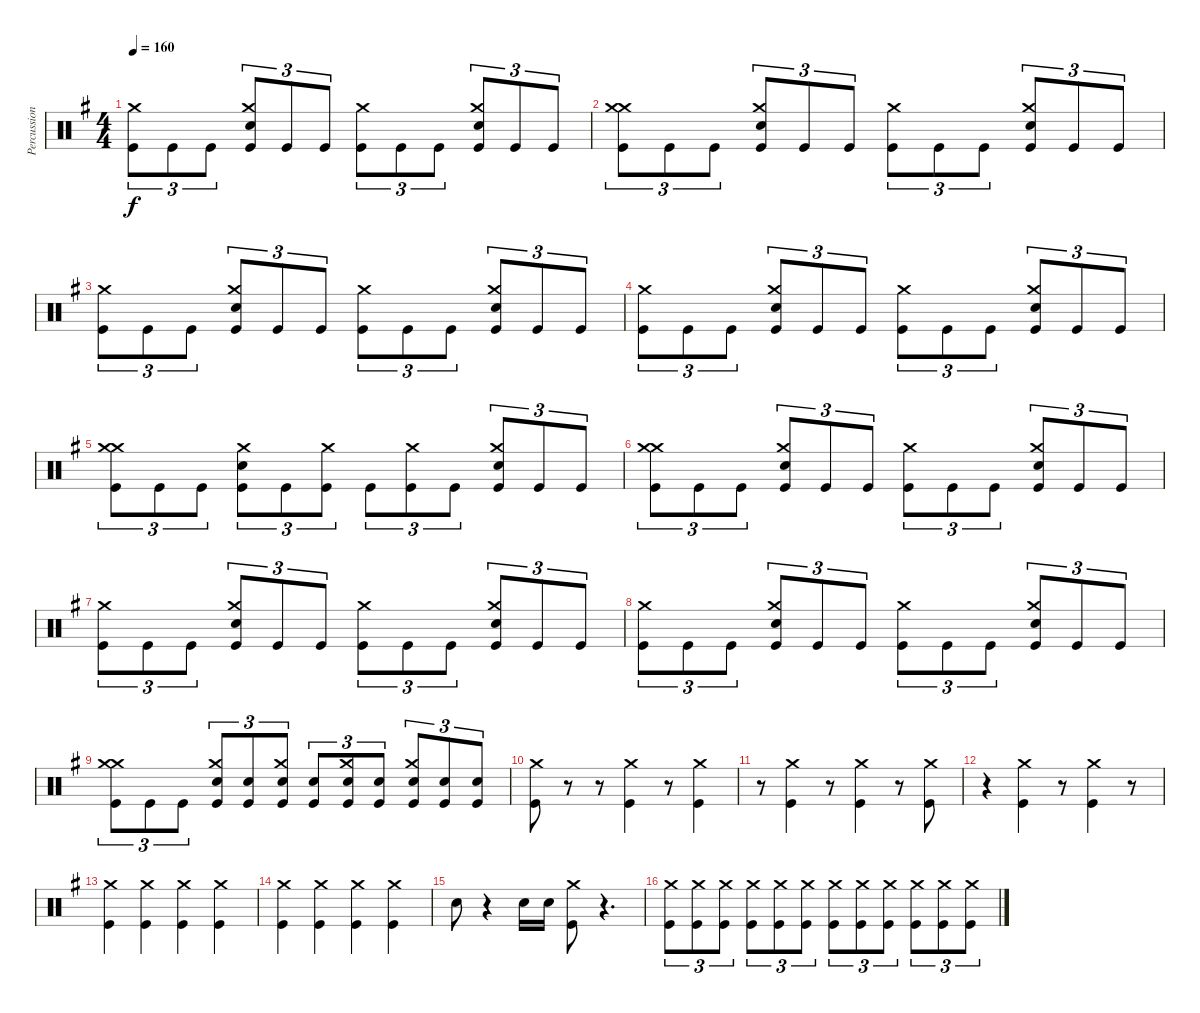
\track ("Percussions" "Percussion") {instrument percussion}
\staff {score}
\articulation defaults
\ts (4 4)
\tempo 160
\clef neutral
\ks g
("Kick (hit)" "Crash medium (hit)").8{tu (3 2) dy f} "Kick (hit)".8{tu (3 2)} "Kick (hit)".8{tu (3 2)} ("Kick (hit)" "Electric Snare (hit)" "Crash medium (hit)").8{tu (3 2)} "Kick (hit)".8{tu (3 2)} "Kick (hit)".8{tu (3 2)} ("Kick (hit)" "Crash medium (hit)").8{tu (3 2)} "Kick (hit)".8{tu (3 2)} "Kick (hit)".8{tu (3 2)} ("Kick (hit)" "Electric Snare (hit)" "Crash medium (hit)").8{tu (3 2)} "Kick (hit)".8{tu (3 2)} "Kick (hit)".8{tu (3 2)} |
("Kick (hit)" "Crash medium (hit)" "Crash medium (hit)").8{tu (3 2)} "Kick (hit)".8{tu (3 2)} "Kick (hit)".8{tu (3 2)} ("Kick (hit)" "Electric Snare (hit)" "Crash medium (hit)").8{tu (3 2)} "Kick (hit)".8{tu (3 2)} "Kick (hit)".8{tu (3 2)} ("Kick (hit)" "Crash medium (hit)").8{tu (3 2)} "Kick (hit)".8{tu (3 2)} "Kick (hit)".8{tu (3 2)} ("Kick (hit)" "Electric Snare (hit)" "Crash medium (hit)").8{tu (3 2)} "Kick (hit)".8{tu (3 2)} "Kick (hit)".8{tu (3 2)} |
("Kick (hit)" "Crash medium (hit)").8{tu (3 2)} "Kick (hit)".8{tu (3 2)} "Kick (hit)".8{tu (3 2)} ("Kick (hit)" "Electric Snare (hit)" "Crash medium (hit)").8{tu (3 2)} "Kick (hit)".8{tu (3 2)} "Kick (hit)".8{tu (3 2)} ("Kick (hit)" "Crash medium (hit)").8{tu (3 2)} "Kick (hit)".8{tu (3 2)} "Kick (hit)".8{tu (3 2)} ("Kick (hit)" "Electric Snare (hit)" "Crash medium (hit)").8{tu (3 2)} "Kick (hit)".8{tu (3 2)} "Kick (hit)".8{tu (3 2)} |
("Kick (hit)" "Crash medium (hit)").8{tu (3 2)} "Kick (hit)".8{tu (3 2)} "Kick (hit)".8{tu (3 2)} ("Kick (hit)" "Electric Snare (hit)" "Crash medium (hit)").8{tu (3 2)} "Kick (hit)".8{tu (3 2)} "Kick (hit)".8{tu (3 2)} ("Kick (hit)" "Crash medium (hit)").8{tu (3 2)} "Kick (hit)".8{tu (3 2)} "Kick (hit)".8{tu (3 2)} ("Kick (hit)" "Electric Snare (hit)" "Crash medium (hit)").8{tu (3 2)} "Kick (hit)".8{tu (3 2)} "Kick (hit)".8{tu (3 2)} |
("Kick (hit)" "Crash medium (hit)" "Crash medium (hit)").8{tu (3 2)} "Kick (hit)".8{tu (3 2)} "Kick (hit)".8{tu (3 2)} ("Kick (hit)" "Electric Snare (hit)" "Crash medium (hit)").8{tu (3 2)} "Kick (hit)".8{tu (3 2)} ("Kick (hit)" "Crash medium (hit)").8{tu (3 2)} "Kick (hit)".8{tu (3 2)} ("Kick (hit)" "Crash medium (hit)").8{tu (3 2)} "Kick (hit)".8{tu (3 2)} ("Kick (hit)" "Electric Snare (hit)" "Crash medium (hit)").8{tu (3 2)} "Kick (hit)".8{tu (3 2)} "Kick (hit)".8{tu (3 2)} |
("Kick (hit)" "Crash medium (hit)" "Crash medium (hit)").8{tu (3 2)} "Kick (hit)".8{tu (3 2)} "Kick (hit)".8{tu (3 2)} ("Kick (hit)" "Electric Snare (hit)" "Crash medium (hit)").8{tu (3 2)} "Kick (hit)".8{tu (3 2)} "Kick (hit)".8{tu (3 2)} ("Kick (hit)" "Crash medium (hit)").8{tu (3 2)} "Kick (hit)".8{tu (3 2)} "Kick (hit)".8{tu (3 2)} ("Kick (hit)" "Electric Snare (hit)" "Crash medium (hit)").8{tu (3 2)} "Kick (hit)".8{tu (3 2)} "Kick (hit)".8{tu (3 2)} |
("Kick (hit)" "Crash medium (hit)").8{tu (3 2)} "Kick (hit)".8{tu (3 2)} "Kick (hit)".8{tu (3 2)} ("Kick (hit)" "Electric Snare (hit)" "Crash medium (hit)").8{tu (3 2)} "Kick (hit)".8{tu (3 2)} "Kick (hit)".8{tu (3 2)} ("Kick (hit)" "Crash medium (hit)").8{tu (3 2)} "Kick (hit)".8{tu (3 2)} "Kick (hit)".8{tu (3 2)} ("Kick (hit)" "Electric Snare (hit)" "Crash medium (hit)").8{tu (3 2)} "Kick (hit)".8{tu (3 2)} "Kick (hit)".8{tu (3 2)} |
("Kick (hit)" "Crash medium (hit)").8{tu (3 2)} "Kick (hit)".8{tu (3 2)} "Kick (hit)".8{tu (3 2)} ("Kick (hit)" "Electric Snare (hit)" "Crash medium (hit)").8{tu (3 2)} "Kick (hit)".8{tu (3 2)} "Kick (hit)".8{tu (3 2)} ("Kick (hit)" "Crash medium (hit)").8{tu (3 2)} "Kick (hit)".8{tu (3 2)} "Kick (hit)".8{tu (3 2)} ("Kick (hit)" "Electric Snare (hit)" "Crash medium (hit)").8{tu (3 2)} "Kick (hit)".8{tu (3 2)} "Kick (hit)".8{tu (3 2)} |
("Kick (hit)" "Crash medium (hit)" "Crash medium (hit)").8{tu (3 2)} "Kick (hit)".8{tu (3 2)} "Kick (hit)".8{tu (3 2)} ("Kick (hit)" "Electric Snare (hit)" "Crash medium (hit)").8{tu (3 2)} ("Kick (hit)" "Electric Snare (hit)").8{tu (3 2)} ("Kick (hit)" "Electric Snare (hit)" "Crash medium (hit)").8{tu (3 2)} ("Kick (hit)" "Electric Snare (hit)").8{tu (3 2)} ("Kick (hit)" "Electric Snare (hit)" "Crash medium (hit)").8{tu (3 2)} ("Kick (hit)" "Electric Snare (hit)").8{tu (3 2)} ("Kick (hit)" "Electric Snare (hit)" "Crash medium (hit)").8{tu (3 2)} ("Kick (hit)" "Electric Snare (hit)").8{tu (3 2)} ("Kick (hit)" "Electric Snare (hit)").8{tu (3 2)} |
("Kick (hit)" "Crash medium (hit)").8 r.8 r.8 ("Kick (hit)" "Crash medium (hit)").4 r.8 ("Kick (hit)" "Crash medium (hit)").4 |
r.8 ("Kick (hit)" "Crash medium (hit)").4 r.8 ("Kick (hit)" "Crash medium (hit)").4 r.8 ("Kick (hit)" "Crash medium (hit)").8 |
r.4 ("Kick (hit)" "Crash medium (hit)").4 r.8 ("Kick (hit)" "Crash medium (hit)").4 r.8 |
("Kick (hit)" "Crash medium (hit)").4 ("Kick (hit)" "Crash medium (hit)").4 ("Kick (hit)" "Crash medium (hit)").4 ("Kick (hit)" "Crash medium (hit)").4 |
("Kick (hit)" "Crash medium (hit)").4 ("Kick (hit)" "Crash medium (hit)").4 ("Kick (hit)" "Crash medium (hit)").4 ("Kick (hit)" "Crash medium (hit)").4 |
"Electric Snare (hit)".8 r.4 "Electric Snare (hit)".16 "Electric Snare (hit)".16 ("Kick (hit)" "Crash medium (hit)").8 r.4{d} |
("Kick (hit)" "Crash medium (hit)").8{tu (3 2)} ("Kick (hit)" "Crash medium (hit)").8{tu (3 2)} ("Kick (hit)" "Crash medium (hit)").8{tu (3 2)} ("Kick (hit)" "Crash medium (hit)").8{tu (3 2)} ("Kick (hit)" "Crash medium (hit)").8{tu (3 2)} ("Kick (hit)" "Crash medium (hit)").8{tu (3 2)} ("Kick (hit)" "Crash medium (hit)").8{tu (3 2)} ("Kick (hit)" "Crash medium (hit)").8{tu (3 2)} ("Kick (hit)" "Crash medium (hit)").8{tu (3 2)} ("Kick (hit)" "Crash medium (hit)").8{tu (3 2)} ("Kick (hit)" "Crash medium (hit)").8{tu (3 2)} ("Kick (hit)" "Crash medium (hit)").8{tu (3 2)}
